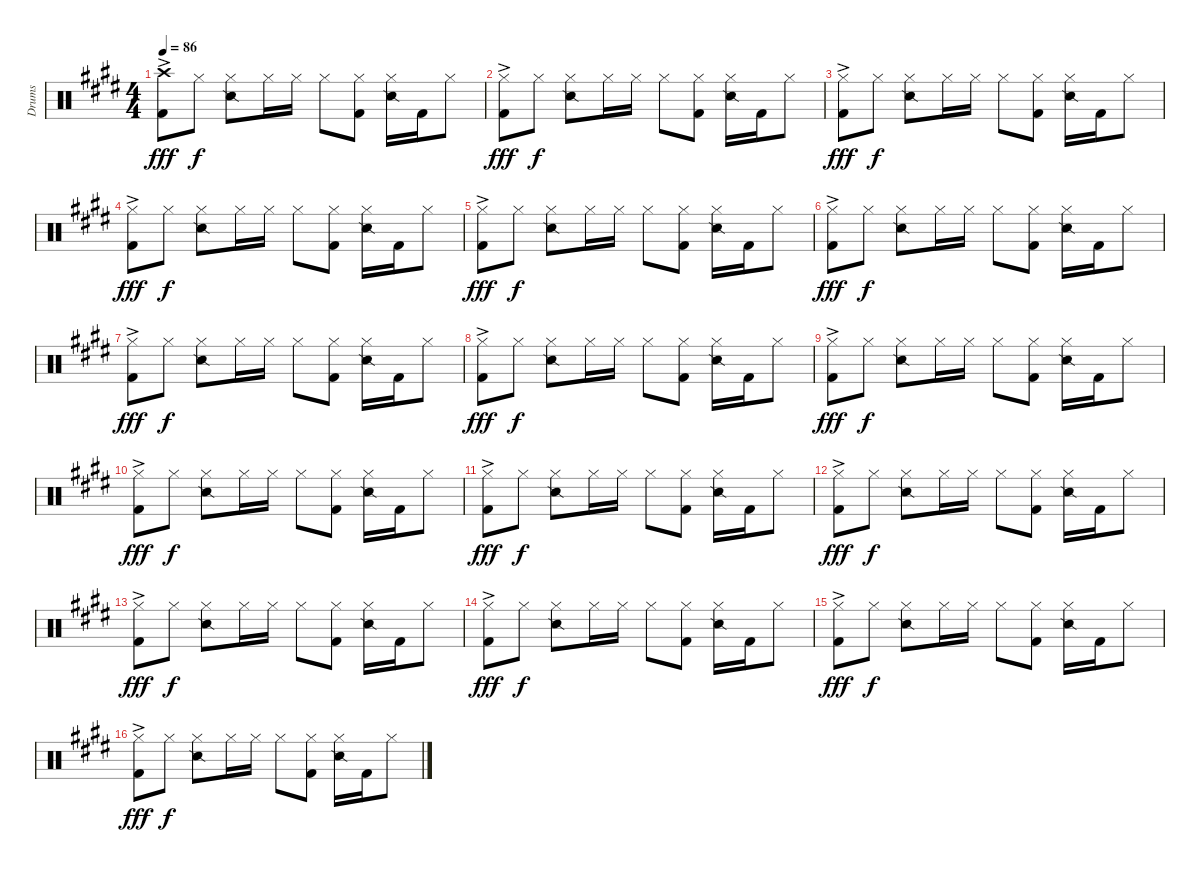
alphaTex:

\track ("Drums" "Drums") {instrument percussion}
\staff {score}
\articulation defaults
\ts (4 4)
\tempo 86
\clef neutral
\ks e
("Crash high (hit)" "Kick (hit) 2"{ac}).8{dy fff} "Hi-Hat (closed)".8{dy f} ("Hi-Hat (closed)" "Snare (side stick) 2").8 "Hi-Hat (closed)".16 "Hi-Hat (closed)".16 "Hi-Hat (closed)".8 ("Hi-Hat (closed)" "Kick (hit) 2").8 ("Hi-Hat (closed)" "Snare (side stick) 2").16 "Kick (hit) 2".16 "Hi-Hat (closed)".8 |
("Hi-Hat (closed)" "Kick (hit) 2"{ac}).8{dy fff} "Hi-Hat (closed)".8{dy f} ("Hi-Hat (closed)" "Snare (side stick) 2").8 "Hi-Hat (closed)".16 "Hi-Hat (closed)".16 "Hi-Hat (closed)".8 ("Hi-Hat (closed)" "Kick (hit) 2").8 ("Hi-Hat (closed)" "Snare (side stick) 2").16 "Kick (hit) 2".16 "Hi-Hat (closed)".8 |
("Hi-Hat (closed)" "Kick (hit) 2"{ac}).8{dy fff} "Hi-Hat (closed)".8{dy f} ("Hi-Hat (closed)" "Snare (side stick) 2").8 "Hi-Hat (closed)".16 "Hi-Hat (closed)".16 "Hi-Hat (closed)".8 ("Hi-Hat (closed)" "Kick (hit) 2").8 ("Hi-Hat (closed)" "Snare (side stick) 2").16 "Kick (hit) 2".16 "Hi-Hat (closed)".8 |
("Hi-Hat (closed)" "Kick (hit) 2"{ac}).8{dy fff} "Hi-Hat (closed)".8{dy f} ("Hi-Hat (closed)" "Snare (side stick) 2").8 "Hi-Hat (closed)".16 "Hi-Hat (closed)".16 "Hi-Hat (closed)".8 ("Hi-Hat (closed)" "Kick (hit) 2").8 ("Hi-Hat (closed)" "Snare (side stick) 2").16 "Kick (hit) 2".16 "Hi-Hat (closed)".8 |
("Hi-Hat (closed)" "Kick (hit) 2"{ac}).8{dy fff} "Hi-Hat (closed)".8{dy f} ("Hi-Hat (closed)" "Snare (side stick) 2").8 "Hi-Hat (closed)".16 "Hi-Hat (closed)".16 "Hi-Hat (closed)".8 ("Hi-Hat (closed)" "Kick (hit) 2").8 ("Hi-Hat (closed)" "Snare (side stick) 2").16 "Kick (hit) 2".16 "Hi-Hat (closed)".8 |
("Hi-Hat (closed)" "Kick (hit) 2"{ac}).8{dy fff} "Hi-Hat (closed)".8{dy f} ("Hi-Hat (closed)" "Snare (side stick) 2").8 "Hi-Hat (closed)".16 "Hi-Hat (closed)".16 "Hi-Hat (closed)".8 ("Hi-Hat (closed)" "Kick (hit) 2").8 ("Hi-Hat (closed)" "Snare (side stick) 2").16 "Kick (hit) 2".16 "Hi-Hat (closed)".8 |
("Hi-Hat (closed)" "Kick (hit) 2"{ac}).8{dy fff} "Hi-Hat (closed)".8{dy f} ("Hi-Hat (closed)" "Snare (side stick) 2").8 "Hi-Hat (closed)".16 "Hi-Hat (closed)".16 "Hi-Hat (closed)".8 ("Hi-Hat (closed)" "Kick (hit) 2").8 ("Hi-Hat (closed)" "Snare (side stick) 2").16 "Kick (hit) 2".16 "Hi-Hat (closed)".8 |
("Hi-Hat (closed)" "Kick (hit) 2"{ac}).8{dy fff} "Hi-Hat (closed)".8{dy f} ("Hi-Hat (closed)" "Snare (side stick) 2").8 "Hi-Hat (closed)".16 "Hi-Hat (closed)".16 "Hi-Hat (closed)".8 ("Hi-Hat (closed)" "Kick (hit) 2").8 ("Hi-Hat (closed)" "Snare (side stick) 2").16 "Kick (hit) 2".16 "Hi-Hat (closed)".8 |
("Hi-Hat (closed)" "Kick (hit) 2"{ac}).8{dy fff} "Hi-Hat (closed)".8{dy f} ("Hi-Hat (closed)" "Snare (side stick) 2").8 "Hi-Hat (closed)".16 "Hi-Hat (closed)".16 "Hi-Hat (closed)".8 ("Hi-Hat (closed)" "Kick (hit) 2").8 ("Hi-Hat (closed)" "Snare (side stick) 2").16 "Kick (hit) 2".16 "Hi-Hat (closed)".8 |
("Hi-Hat (closed)" "Kick (hit) 2"{ac}).8{dy fff} "Hi-Hat (closed)".8{dy f} ("Hi-Hat (closed)" "Snare (side stick) 2").8 "Hi-Hat (closed)".16 "Hi-Hat (closed)".16 "Hi-Hat (closed)".8 ("Hi-Hat (closed)" "Kick (hit) 2").8 ("Hi-Hat (closed)" "Snare (side stick) 2").16 "Kick (hit) 2".16 "Hi-Hat (closed)".8 |
("Hi-Hat (closed)" "Kick (hit) 2"{ac}).8{dy fff} "Hi-Hat (closed)".8{dy f} ("Hi-Hat (closed)" "Snare (side stick) 2").8 "Hi-Hat (closed)".16 "Hi-Hat (closed)".16 "Hi-Hat (closed)".8 ("Hi-Hat (closed)" "Kick (hit) 2").8 ("Hi-Hat (closed)" "Snare (side stick) 2").16 "Kick (hit) 2".16 "Hi-Hat (closed)".8 |
("Hi-Hat (closed)" "Kick (hit) 2"{ac}).8{dy fff} "Hi-Hat (closed)".8{dy f} ("Hi-Hat (closed)" "Snare (side stick) 2").8 "Hi-Hat (closed)".16 "Hi-Hat (closed)".16 "Hi-Hat (closed)".8 ("Hi-Hat (closed)" "Kick (hit) 2").8 ("Hi-Hat (closed)" "Snare (side stick) 2").16 "Kick (hit) 2".16 "Hi-Hat (closed)".8 |
("Hi-Hat (closed)" "Kick (hit) 2"{ac}).8{dy fff} "Hi-Hat (closed)".8{dy f} ("Hi-Hat (closed)" "Snare (side stick) 2").8 "Hi-Hat (closed)".16 "Hi-Hat (closed)".16 "Hi-Hat (closed)".8 ("Hi-Hat (closed)" "Kick (hit) 2").8 ("Hi-Hat (closed)" "Snare (side stick) 2").16 "Kick (hit) 2".16 "Hi-Hat (closed)".8 |
("Hi-Hat (closed)" "Kick (hit) 2"{ac}).8{dy fff} "Hi-Hat (closed)".8{dy f} ("Hi-Hat (closed)" "Snare (side stick) 2").8 "Hi-Hat (closed)".16 "Hi-Hat (closed)".16 "Hi-Hat (closed)".8 ("Hi-Hat (closed)" "Kick (hit) 2").8 ("Hi-Hat (closed)" "Snare (side stick) 2").16 "Kick (hit) 2".16 "Hi-Hat (closed)".8 |
("Hi-Hat (closed)" "Kick (hit) 2"{ac}).8{dy fff} "Hi-Hat (closed)".8{dy f} ("Hi-Hat (closed)" "Snare (side stick) 2").8 "Hi-Hat (closed)".16 "Hi-Hat (closed)".16 "Hi-Hat (closed)".8 ("Hi-Hat (closed)" "Kick (hit) 2").8 ("Hi-Hat (closed)" "Snare (side stick) 2").16 "Kick (hit) 2".16 "Hi-Hat (closed)".8 |
("Hi-Hat (closed)" "Kick (hit) 2"{ac}).8{dy fff} "Hi-Hat (closed)".8{dy f} ("Hi-Hat (closed)" "Snare (side stick) 2").8 "Hi-Hat (closed)".16 "Hi-Hat (closed)".16 "Hi-Hat (closed)".8 ("Hi-Hat (closed)" "Kick (hit) 2").8 ("Hi-Hat (closed)" "Snare (side stick) 2").16 "Kick (hit) 2".16 "Hi-Hat (closed)".8
